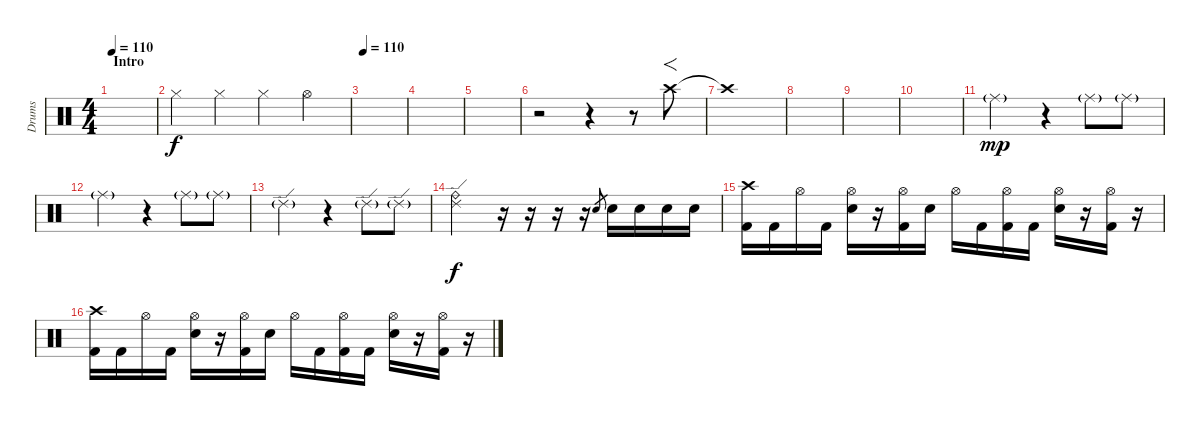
\track ("Drums" "Drums") {instrument percussion}
\staff {score}
\articulation defaults
\ts (4 4)
\section ("" "Intro")
\tempo 110
\tempo 100
\tempo 110
\clef neutral
\ks c
|
"Hi-Hat (closed)".4 "Hi-Hat (closed)".4 "Hi-Hat (closed)".4 "Hi-Hat (open)".4 |
\tempo 110
|
|
|
r.2 r.4 r.8 "Crash high (hit)".8{f} |
"Crash high (hit)"{t}.1 |
|
|
|
"Ride (middle)"{g}.2{dy mp} r.4 "Ride (middle)"{g}.8 "Ride (middle)"{g}.8 |
"Ride (middle)"{g}.2 r.4 "Ride (middle)"{g}.8 "Ride (middle)"{g}.8 |
"Ride (edge) 2"{g}.2 r.4 "Ride (edge) 2"{g}.8 "Ride (edge) 2"{g}.8 |
("Ride (edge) 2" "Ride (bell)").2{dy f} r.16 r.16 r.16 r.16 "Electric Snare (hit)".8{gr} "Electric Snare (hit)".16 "Electric Snare (hit)".16 "Electric Snare (hit)".16 "Electric Snare (hit)".16 |
("Crash high (hit)" "Kick (hit) 2").16 "Kick (hit) 2".16 "Hi-Hat (open)".16 "Kick (hit) 2".16 ("Hi-Hat (open)" "Electric Snare (hit)").16 r.16 ("Hi-Hat (open)" "Kick (hit) 2").16 "Electric Snare (hit)".16 "Hi-Hat (open)".16 "Kick (hit) 2".16 ("Hi-Hat (open)" "Kick (hit) 2").16 "Kick (hit) 2".16 ("Hi-Hat (open)" "Electric Snare (hit)").16 r.16 ("Hi-Hat (open)" "Kick (hit) 2").16 r.16 |
("Crash high (hit)" "Kick (hit) 2").16 "Kick (hit) 2".16 "Hi-Hat (open)".16 "Kick (hit) 2".16 ("Hi-Hat (open)" "Electric Snare (hit)").16 r.16 ("Hi-Hat (open)" "Kick (hit) 2").16 "Electric Snare (hit)".16 "Hi-Hat (open)".16 "Kick (hit) 2".16 ("Hi-Hat (open)" "Kick (hit) 2").16 "Kick (hit) 2".16 ("Hi-Hat (open)" "Electric Snare (hit)").16 r.16 ("Hi-Hat (open)" "Kick (hit) 2").16 r.16
